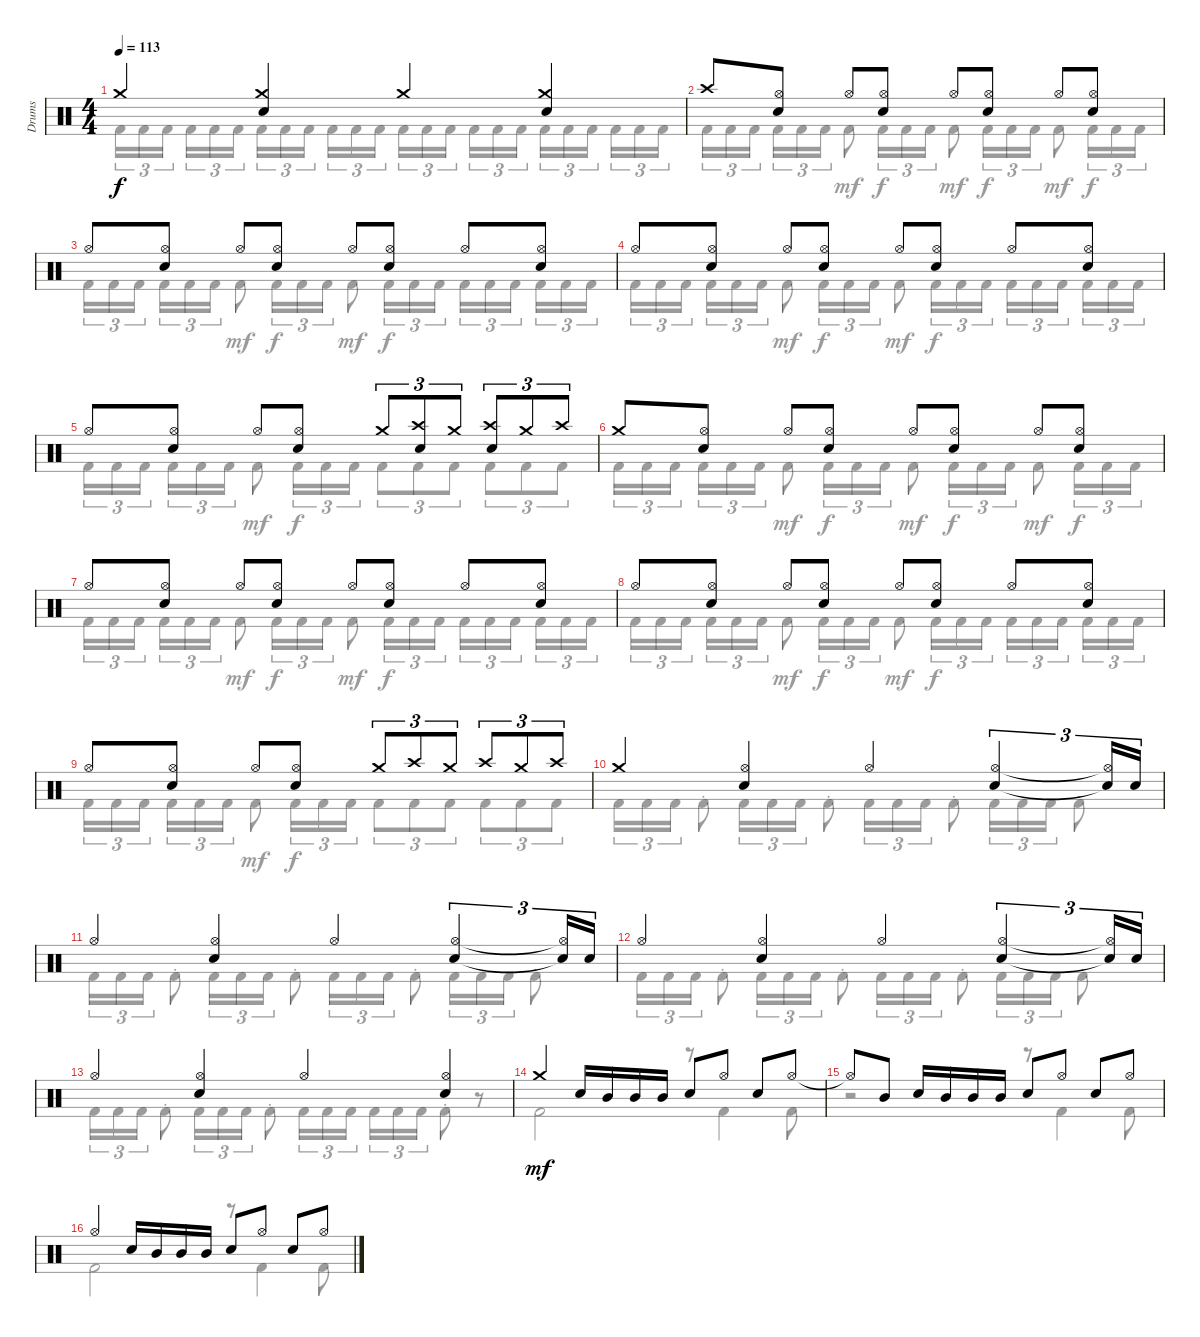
\track ("Drums" "Drums") {instrument percussion}
\staff {score}
\articulation defaults
\voice
\ts (4 4)
\tempo 113
\clef neutral
\ks c "Crash medium (hit)".4{dy f}
("Crash medium (hit)" "Snare (hit) 2").4 "Crash medium (hit)".4 ("Crash medium (hit)" "Snare (hit) 2").4 |
"Crash high (hit)".8 ("Hi-Hat (open)" "Snare (hit) 2").8 "Hi-Hat (open)".8 ("Hi-Hat (open)" "Snare (hit) 2").8 "Hi-Hat (open)".8 ("Hi-Hat (open)" "Snare (hit) 2").8 "Hi-Hat (open)".8 ("Hi-Hat (open)" "Snare (hit) 2").8 |
"Hi-Hat (open)".8 ("Hi-Hat (open)" "Snare (hit) 2").8 "Hi-Hat (open)".8 ("Hi-Hat (open)" "Snare (hit) 2").8 "Hi-Hat (open)".8 ("Hi-Hat (open)" "Snare (hit) 2").8 "Hi-Hat (open)".8 ("Hi-Hat (open)" "Snare (hit) 2").8 |
"Hi-Hat (open)".8 ("Hi-Hat (open)" "Snare (hit) 2").8 "Hi-Hat (open)".8 ("Hi-Hat (open)" "Snare (hit) 2").8 "Hi-Hat (open)".8 ("Hi-Hat (open)" "Snare (hit) 2").8 "Hi-Hat (open)".8 ("Hi-Hat (open)" "Snare (hit) 2").8 |
"Hi-Hat (open)".8 ("Hi-Hat (open)" "Snare (hit) 2").8 "Hi-Hat (open)".8 ("Hi-Hat (open)" "Snare (hit) 2").8 "Crash medium (hit)".8{tu (3 2)} ("Crash high (hit)" "Snare (hit) 2").8{tu (3 2)} "Crash medium (hit)".8{tu (3 2)} ("Crash high (hit)" "Snare (hit) 2").8{tu (3 2)} "Crash medium (hit)".8{tu (3 2)} "Crash high (hit)".8{tu (3 2)} |
"Crash medium (hit)".8 ("Hi-Hat (open)" "Snare (hit) 2").8 "Hi-Hat (open)".8 ("Hi-Hat (open)" "Snare (hit) 2").8 "Hi-Hat (open)".8 ("Hi-Hat (open)" "Snare (hit) 2").8 "Hi-Hat (open)".8 ("Hi-Hat (open)" "Snare (hit) 2").8 |
"Hi-Hat (open)".8 ("Hi-Hat (open)" "Snare (hit) 2").8 "Hi-Hat (open)".8 ("Hi-Hat (open)" "Snare (hit) 2").8 "Hi-Hat (open)".8 ("Hi-Hat (open)" "Snare (hit) 2").8 "Hi-Hat (open)".8 ("Hi-Hat (open)" "Snare (hit) 2").8 |
"Hi-Hat (open)".8 ("Hi-Hat (open)" "Snare (hit) 2").8 "Hi-Hat (open)".8 ("Hi-Hat (open)" "Snare (hit) 2").8 "Hi-Hat (open)".8 ("Hi-Hat (open)" "Snare (hit) 2").8 "Hi-Hat (open)".8 ("Hi-Hat (open)" "Snare (hit) 2").8 |
"Hi-Hat (open)".8 ("Hi-Hat (open)" "Snare (hit) 2").8 "Hi-Hat (open)".8 ("Hi-Hat (open)" "Snare (hit) 2").8 "Crash medium (hit)".8{tu (3 2)} "Crash high (hit)".8{tu (3 2)} "Crash medium (hit)".8{tu (3 2)} "Crash high (hit)".8{tu (3 2)} "Crash medium (hit)".8{tu (3 2)} "Crash high (hit)".8{tu (3 2)} |
"Crash medium (hit)".4 ("Hi-Hat (open)" "Snare (hit) 2").4 "Hi-Hat (open)".4 ("Hi-Hat (open)" "Snare (hit) 2").4{tu (3 2)} ("Hi-Hat (open)"{t} "Snare (hit) 2"{t}).16{tu (3 2)} "Snare (hit) 2".16{tu (3 2)} |
"Hi-Hat (open)".4 ("Hi-Hat (open)" "Snare (hit) 2").4 "Hi-Hat (open)".4 ("Hi-Hat (open)" "Snare (hit) 2").4{tu (3 2)} ("Hi-Hat (open)"{t} "Snare (hit) 2"{t}).16{tu (3 2)} "Snare (hit) 2".16{tu (3 2)} |
"Hi-Hat (open)".4 ("Hi-Hat (open)" "Snare (hit) 2").4 "Hi-Hat (open)".4 ("Hi-Hat (open)" "Snare (hit) 2").4{tu (3 2)} ("Hi-Hat (open)"{t} "Snare (hit) 2"{t}).16{tu (3 2)} "Snare (hit) 2".16{tu (3 2)} |
"Hi-Hat (open)".4 ("Hi-Hat (open)" "Snare (hit) 2").4 "Hi-Hat (open)".4 ("Hi-Hat (open)" "Snare (hit) 2").4 |
"Crash medium (hit)".4{dy mf} "Snare (hit) 2".16 "Mid Tom (hit)".16 "Mid Tom (hit)".16 "Mid Tom (hit)".16 "Snare (hit) 2".8 "Hi-Hat (open)".8 "Snare (hit) 2".8 "Hi-Hat (open)".8 |
"Hi-Hat (open)"{t}.8 "Mid Tom (hit)".8 "Snare (hit) 2".16 "Mid Tom (hit)".16 "Mid Tom (hit)".16 "Mid Tom (hit)".16 "Snare (hit) 2".8 "Hi-Hat (open)".8 "Snare (hit) 2".8 "Hi-Hat (open)".8 |
"Hi-Hat (open)".4 "Snare (hit) 2".16 "Mid Tom (hit)".16 "Mid Tom (hit)".16 "Mid Tom (hit)".16 "Snare (hit) 2".8 "Hi-Hat (open)".8 "Snare (hit) 2".8 "Hi-Hat (open)".8
\voice
\clef neutral
\ottava regular
\simile none
\ks c "Kick (hit) 2".16{tu (3 2) dy f} "Kick (hit) 2".16{tu (3 2)} "Kick (hit) 2".16{tu (3 2) beam splitsecondary} "Kick (hit) 2".16{tu (3 2)} "Kick (hit) 2".16{tu (3 2)} "Kick (hit) 2".16{tu (3 2)} "Kick (hit) 2".16{tu (3 2)} "Kick (hit) 2".16{tu (3 2)} "Kick (hit) 2".16{tu (3 2) beam splitsecondary} "Kick (hit) 2".16{tu (3 2)} "Kick (hit) 2".16{tu (3 2)} "Kick (hit) 2".16{tu (3 2)} "Kick (hit) 2".16{tu (3 2)} "Kick (hit) 2".16{tu (3 2)} "Kick (hit) 2".16{tu (3 2) beam splitsecondary} "Kick (hit) 2".16{tu (3 2)} "Kick (hit) 2".16{tu (3 2)} "Kick (hit) 2".16{tu (3 2)} "Kick (hit) 2".16{tu (3 2)} "Kick (hit) 2".16{tu (3 2)} "Kick (hit) 2".16{tu (3 2) beam splitsecondary} "Kick (hit) 2".16{tu (3 2)} "Kick (hit) 2".16{tu (3 2)} "Kick (hit) 2".16{tu (3 2)}
|
"Kick (hit) 2".16{tu (3 2)} "Kick (hit) 2".16{tu (3 2)} "Kick (hit) 2".16{tu (3 2) beam splitsecondary} "Kick (hit) 2".16{tu (3 2)} "Kick (hit) 2".16{tu (3 2)} "Kick (hit) 2".16{tu (3 2)} "Kick (hit) 2".8{dy mf} "Kick (hit) 2".16{tu (3 2) dy f} "Kick (hit) 2".16{tu (3 2)} "Kick (hit) 2".16{tu (3 2)} "Kick (hit) 2".8{dy mf} "Kick (hit) 2".16{tu (3 2) dy f} "Kick (hit) 2".16{tu (3 2)} "Kick (hit) 2".16{tu (3 2)} "Kick (hit) 2".8{dy mf} "Kick (hit) 2".16{tu (3 2) dy f} "Kick (hit) 2".16{tu (3 2)} "Kick (hit) 2".16{tu (3 2)} |
"Kick (hit) 2".16{tu (3 2)} "Kick (hit) 2".16{tu (3 2)} "Kick (hit) 2".16{tu (3 2) beam splitsecondary} "Kick (hit) 2".16{tu (3 2)} "Kick (hit) 2".16{tu (3 2)} "Kick (hit) 2".16{tu (3 2)} "Kick (hit) 2".8{dy mf} "Kick (hit) 2".16{tu (3 2) dy f} "Kick (hit) 2".16{tu (3 2)} "Kick (hit) 2".16{tu (3 2)} "Kick (hit) 2".8{dy mf} "Kick (hit) 2".16{tu (3 2) dy f} "Kick (hit) 2".16{tu (3 2)} "Kick (hit) 2".16{tu (3 2)} "Kick (hit) 2".16{tu (3 2)} "Kick (hit) 2".16{tu (3 2)} "Kick (hit) 2".16{tu (3 2) beam splitsecondary} "Kick (hit) 2".16{tu (3 2)} "Kick (hit) 2".16{tu (3 2)} "Kick (hit) 2".16{tu (3 2)} |
"Kick (hit) 2".16{tu (3 2)} "Kick (hit) 2".16{tu (3 2)} "Kick (hit) 2".16{tu (3 2) beam splitsecondary} "Kick (hit) 2".16{tu (3 2)} "Kick (hit) 2".16{tu (3 2)} "Kick (hit) 2".16{tu (3 2)} "Kick (hit) 2".8{dy mf} "Kick (hit) 2".16{tu (3 2) dy f} "Kick (hit) 2".16{tu (3 2)} "Kick (hit) 2".16{tu (3 2)} "Kick (hit) 2".8{dy mf} "Kick (hit) 2".16{tu (3 2) dy f} "Kick (hit) 2".16{tu (3 2)} "Kick (hit) 2".16{tu (3 2)} "Kick (hit) 2".16{tu (3 2)} "Kick (hit) 2".16{tu (3 2)} "Kick (hit) 2".16{tu (3 2) beam splitsecondary} "Kick (hit) 2".16{tu (3 2)} "Kick (hit) 2".16{tu (3 2)} "Kick (hit) 2".16{tu (3 2)} |
"Kick (hit) 2".16{tu (3 2)} "Kick (hit) 2".16{tu (3 2)} "Kick (hit) 2".16{tu (3 2) beam splitsecondary} "Kick (hit) 2".16{tu (3 2)} "Kick (hit) 2".16{tu (3 2)} "Kick (hit) 2".16{tu (3 2)} "Kick (hit) 2".8{dy mf} "Kick (hit) 2".16{tu (3 2) dy f} "Kick (hit) 2".16{tu (3 2)} "Kick (hit) 2".16{tu (3 2)} "Kick (hit) 2".8{tu (3 2)} "Kick (hit) 2".8{tu (3 2)} "Kick (hit) 2".8{tu (3 2)} "Kick (hit) 2".8{tu (3 2)} "Kick (hit) 2".8{tu (3 2)} "Kick (hit) 2".8{tu (3 2)} |
"Kick (hit) 2".16{tu (3 2)} "Kick (hit) 2".16{tu (3 2)} "Kick (hit) 2".16{tu (3 2) beam splitsecondary} "Kick (hit) 2".16{tu (3 2)} "Kick (hit) 2".16{tu (3 2)} "Kick (hit) 2".16{tu (3 2)} "Kick (hit) 2".8{dy mf} "Kick (hit) 2".16{tu (3 2) dy f} "Kick (hit) 2".16{tu (3 2)} "Kick (hit) 2".16{tu (3 2)} "Kick (hit) 2".8{dy mf} "Kick (hit) 2".16{tu (3 2) dy f} "Kick (hit) 2".16{tu (3 2)} "Kick (hit) 2".16{tu (3 2)} "Kick (hit) 2".8{dy mf} "Kick (hit) 2".16{tu (3 2) dy f} "Kick (hit) 2".16{tu (3 2)} "Kick (hit) 2".16{tu (3 2)} |
"Kick (hit) 2".16{tu (3 2)} "Kick (hit) 2".16{tu (3 2)} "Kick (hit) 2".16{tu (3 2) beam splitsecondary} "Kick (hit) 2".16{tu (3 2)} "Kick (hit) 2".16{tu (3 2)} "Kick (hit) 2".16{tu (3 2)} "Kick (hit) 2".8{dy mf} "Kick (hit) 2".16{tu (3 2) dy f} "Kick (hit) 2".16{tu (3 2)} "Kick (hit) 2".16{tu (3 2)} "Kick (hit) 2".8{dy mf} "Kick (hit) 2".16{tu (3 2) dy f} "Kick (hit) 2".16{tu (3 2)} "Kick (hit) 2".16{tu (3 2)} "Kick (hit) 2".16{tu (3 2)} "Kick (hit) 2".16{tu (3 2)} "Kick (hit) 2".16{tu (3 2) beam splitsecondary} "Kick (hit) 2".16{tu (3 2)} "Kick (hit) 2".16{tu (3 2)} "Kick (hit) 2".16{tu (3 2)} |
"Kick (hit) 2".16{tu (3 2)} "Kick (hit) 2".16{tu (3 2)} "Kick (hit) 2".16{tu (3 2) beam splitsecondary} "Kick (hit) 2".16{tu (3 2)} "Kick (hit) 2".16{tu (3 2)} "Kick (hit) 2".16{tu (3 2)} "Kick (hit) 2".8{dy mf} "Kick (hit) 2".16{tu (3 2) dy f} "Kick (hit) 2".16{tu (3 2)} "Kick (hit) 2".16{tu (3 2)} "Kick (hit) 2".8{dy mf} "Kick (hit) 2".16{tu (3 2) dy f} "Kick (hit) 2".16{tu (3 2)} "Kick (hit) 2".16{tu (3 2)} "Kick (hit) 2".16{tu (3 2)} "Kick (hit) 2".16{tu (3 2)} "Kick (hit) 2".16{tu (3 2) beam splitsecondary} "Kick (hit) 2".16{tu (3 2)} "Kick (hit) 2".16{tu (3 2)} "Kick (hit) 2".16{tu (3 2)} |
"Kick (hit) 2".16{tu (3 2)} "Kick (hit) 2".16{tu (3 2)} "Kick (hit) 2".16{tu (3 2) beam splitsecondary} "Kick (hit) 2".16{tu (3 2)} "Kick (hit) 2".16{tu (3 2)} "Kick (hit) 2".16{tu (3 2)} "Kick (hit) 2".8{dy mf} "Kick (hit) 2".16{tu (3 2) dy f} "Kick (hit) 2".16{tu (3 2)} "Kick (hit) 2".16{tu (3 2)} "Kick (hit) 2".8{tu (3 2)} "Kick (hit) 2".8{tu (3 2)} "Kick (hit) 2".8{tu (3 2)} "Kick (hit) 2".8{tu (3 2)} "Kick (hit) 2".8{tu (3 2)} "Kick (hit) 2".8{tu (3 2)} |
"Kick (hit) 2".16{tu (3 2)} "Kick (hit) 2".16{tu (3 2)} "Kick (hit) 2".16{tu (3 2)} "Kick (hit) 2"{st}.8 "Kick (hit) 2".16{tu (3 2)} "Kick (hit) 2".16{tu (3 2)} "Kick (hit) 2".16{tu (3 2)} "Kick (hit) 2"{st}.8 "Kick (hit) 2".16{tu (3 2)} "Kick (hit) 2".16{tu (3 2)} "Kick (hit) 2".16{tu (3 2)} "Kick (hit) 2"{st}.8 "Kick (hit) 2".16{tu (3 2)} "Kick (hit) 2".16{tu (3 2)} "Kick (hit) 2".16{tu (3 2)} "Kick (hit) 2"{st}.8 |
"Kick (hit) 2".16{tu (3 2)} "Kick (hit) 2".16{tu (3 2)} "Kick (hit) 2".16{tu (3 2)} "Kick (hit) 2"{st}.8 "Kick (hit) 2".16{tu (3 2)} "Kick (hit) 2".16{tu (3 2)} "Kick (hit) 2".16{tu (3 2)} "Kick (hit) 2"{st}.8 "Kick (hit) 2".16{tu (3 2)} "Kick (hit) 2".16{tu (3 2)} "Kick (hit) 2".16{tu (3 2)} "Kick (hit) 2"{st}.8 "Kick (hit) 2".16{tu (3 2)} "Kick (hit) 2".16{tu (3 2)} "Kick (hit) 2".16{tu (3 2)} "Kick (hit) 2"{st}.8 |
"Kick (hit) 2".16{tu (3 2)} "Kick (hit) 2".16{tu (3 2)} "Kick (hit) 2".16{tu (3 2)} "Kick (hit) 2"{st}.8 "Kick (hit) 2".16{tu (3 2)} "Kick (hit) 2".16{tu (3 2)} "Kick (hit) 2".16{tu (3 2)} "Kick (hit) 2"{st}.8 "Kick (hit) 2".16{tu (3 2)} "Kick (hit) 2".16{tu (3 2)} "Kick (hit) 2".16{tu (3 2)} "Kick (hit) 2"{st}.8 "Kick (hit) 2".16{tu (3 2)} "Kick (hit) 2".16{tu (3 2)} "Kick (hit) 2".16{tu (3 2)} "Kick (hit) 2"{st}.8 |
"Kick (hit) 2".16{tu (3 2)} "Kick (hit) 2".16{tu (3 2)} "Kick (hit) 2".16{tu (3 2)} "Kick (hit) 2"{st}.8 "Kick (hit) 2".16{tu (3 2)} "Kick (hit) 2".16{tu (3 2)} "Kick (hit) 2".16{tu (3 2)} "Kick (hit) 2"{st}.8 "Kick (hit) 2".16{tu (3 2)} "Kick (hit) 2".16{tu (3 2)} "Kick (hit) 2".16{tu (3 2) beam splitsecondary} "Kick (hit) 2".16{tu (3 2)} "Kick (hit) 2".16{tu (3 2)} "Kick (hit) 2".16{tu (3 2)} "Kick (hit) 2"{st}.8 r.8 |
"Kick (hit) 2".2{dy mf} r.8 "Kick (hit) 2".4 "Kick (hit) 2".8 |
r.2 r.8 "Kick (hit) 2".4 "Kick (hit) 2".8 |
"Kick (hit) 2".2 r.8 "Kick (hit) 2".4 "Kick (hit) 2".8
